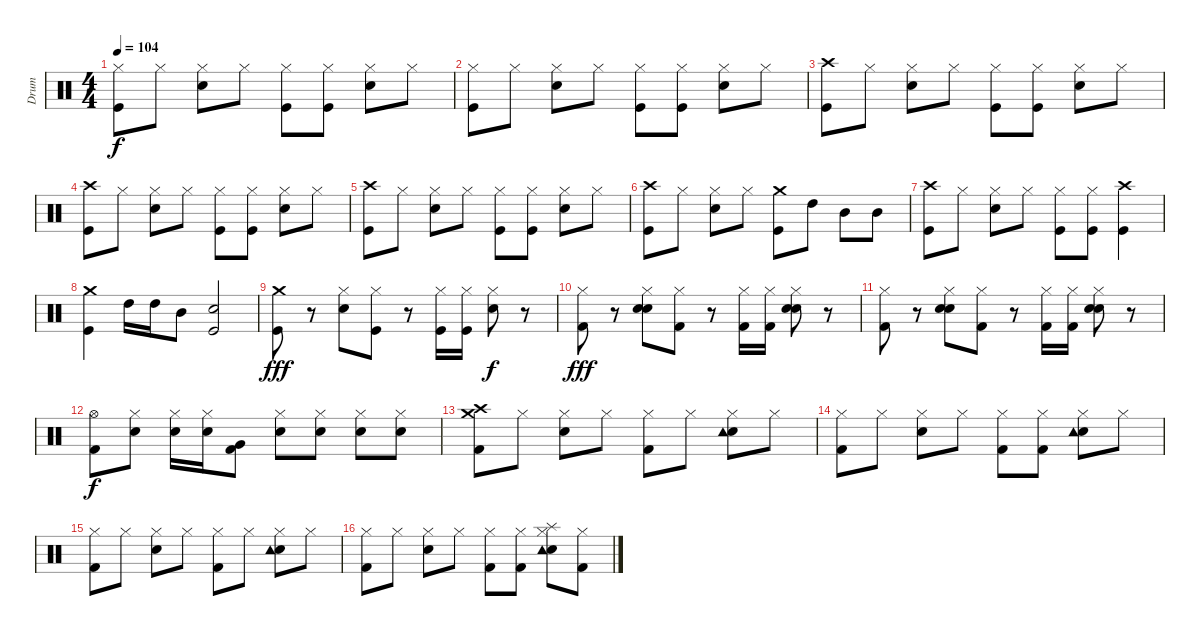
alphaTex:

\track ("Drum" "Drum") {instrument percussion}
\staff {score}
\articulation defaults
\ts (4 4)
\tempo 104
\clef neutral
\ks c
("Hi-Hat (closed)" "Kick (hit)").8{dy f} "Hi-Hat (closed)".8 ("Electric Snare (hit)" "Hi-Hat (closed)").8 "Hi-Hat (closed)".8 ("Hi-Hat (closed)" "Kick (hit)").8 ("Hi-Hat (closed)" "Kick (hit)").8 ("Electric Snare (hit)" "Hi-Hat (closed)").8 "Hi-Hat (closed)".8 |
("Hi-Hat (closed)" "Kick (hit)").8 "Hi-Hat (closed)".8 ("Electric Snare (hit)" "Hi-Hat (closed)").8 "Hi-Hat (closed)".8 ("Hi-Hat (closed)" "Kick (hit)").8 ("Hi-Hat (closed)" "Kick (hit)").8 ("Electric Snare (hit)" "Hi-Hat (closed)").8 "Hi-Hat (closed)".8 |
("Crash high (hit)" "Kick (hit)").8 "Hi-Hat (closed)".8 ("Electric Snare (hit)" "Hi-Hat (closed)").8 "Hi-Hat (closed)".8 ("Hi-Hat (closed)" "Kick (hit)").8 ("Hi-Hat (closed)" "Kick (hit)").8 ("Electric Snare (hit)" "Hi-Hat (closed)").8 "Hi-Hat (closed)".8 |
("Crash high (hit)" "Kick (hit)").8 "Hi-Hat (closed)".8 ("Electric Snare (hit)" "Hi-Hat (closed)").8 "Hi-Hat (closed)".8 ("Hi-Hat (closed)" "Kick (hit)").8 ("Hi-Hat (closed)" "Kick (hit)").8 ("Electric Snare (hit)" "Hi-Hat (closed)").8 "Hi-Hat (closed)".8 |
("Crash high (hit)" "Kick (hit)").8 "Hi-Hat (closed)".8 ("Electric Snare (hit)" "Hi-Hat (closed)").8 "Hi-Hat (closed)".8 ("Hi-Hat (closed)" "Kick (hit)").8 ("Hi-Hat (closed)" "Kick (hit)").8 ("Electric Snare (hit)" "Hi-Hat (closed)").8 "Hi-Hat (closed)".8 |
("Crash high (hit)" "Kick (hit)").8 "Hi-Hat (closed)".8 ("Electric Snare (hit)" "Hi-Hat (closed)").8 "Hi-Hat (closed)".8 ("Crash medium (hit)" "Kick (hit)").8 "High Tom (hit)".8 "Mid Tom (hit)".8 "Mid Tom (hit)".8 |
("Crash high (hit)" "Kick (hit)").8 "Hi-Hat (closed)".8 ("Electric Snare (hit)" "Hi-Hat (closed)").8 "Hi-Hat (closed)".8 ("Hi-Hat (closed)" "Kick (hit)").8 ("Hi-Hat (closed)" "Kick (hit)").8 ("Crash high (hit)" "Kick (hit)").4 |
("Crash medium (hit)" "Kick (hit)").4 "High Tom (hit)".16 "High Tom (hit)".16 "Mid Tom (hit)".8 ("Electric Snare (hit)" "Kick (hit)").2 |
("Crash medium (hit)" "Kick (hit)").8{dy fff} r.8 ("Electric Snare (hit)" "Hi-Hat (closed)").8 ("Hi-Hat (closed)" "Kick (hit)").8 r.8 ("Hi-Hat (closed)" "Kick (hit)").16 ("Hi-Hat (closed)" "Kick (hit)").16 ("Electric Snare (hit)" "Hi-Hat (closed)").8{dy f} r.8 |
("Hi-Hat (closed)" "Kick (hit) 2").8{dy fff} r.8 ("Snare (hit) 2" "Electric Snare (hit)" "Hi-Hat (closed)").8 ("Hi-Hat (closed)" "Kick (hit) 2").8 r.8 ("Hi-Hat (closed)" "Kick (hit) 2").16 ("Hi-Hat (closed)" "Kick (hit) 2").16 ("Snare (hit) 2" "Electric Snare (hit)" "Hi-Hat (closed)").8 r.8 |
("Hi-Hat (closed)" "Kick (hit) 2").8 r.8 ("Snare (hit) 2" "Electric Snare (hit)" "Hi-Hat (closed)").8 ("Hi-Hat (closed)" "Kick (hit) 2").8 r.8 ("Hi-Hat (closed)" "Kick (hit) 2").16 ("Hi-Hat (closed)" "Kick (hit) 2").16 ("Snare (hit) 2" "Electric Snare (hit)" "Hi-Hat (closed)").8 r.8 |
("Hi-Hat (open)" "Kick (hit) 2").8{dy f} ("Snare (hit) 2" "Hi-Hat (closed)").8 ("Snare (hit) 2" "Hi-Hat (closed)").16 ("Snare (hit) 2" "Hi-Hat (closed)").16 ("Very Low Tom (hit)" "Kick (hit) 2").8 ("Snare (hit) 2" "Hi-Hat (closed)").8 ("Snare (hit) 2" "Hi-Hat (closed)").8 ("Snare (hit) 2" "Hi-Hat (closed)").8 ("Snare (hit) 2" "Hi-Hat (closed)").8 |
("Crash medium (hit)" "Crash high (hit)" "Kick (hit) 2").8 "Hi-Hat (closed)".8 ("Snare (hit) 2" "Hi-Hat (closed)").8 "Hi-Hat (closed)".8 ("Hi-Hat (closed)" "Kick (hit) 2").8 "Hi-Hat (closed)".8 ("Snare (hit) 2" "Hi-Hat (closed)" "Tambourine (hit)").8 "Hi-Hat (closed)".8 |
("Hi-Hat (closed)" "Kick (hit) 2").8 "Hi-Hat (closed)".8 ("Snare (hit) 2" "Hi-Hat (closed)").8 "Hi-Hat (closed)".8 ("Hi-Hat (closed)" "Kick (hit) 2").8 ("Hi-Hat (closed)" "Kick (hit) 2").8 ("Snare (hit) 2" "Hi-Hat (closed)" "Tambourine (hit)").8 "Hi-Hat (closed)".8 |
("Hi-Hat (closed)" "Kick (hit) 2").8 "Hi-Hat (closed)".8 ("Snare (hit) 2" "Hi-Hat (closed)").8 "Hi-Hat (closed)".8 ("Hi-Hat (closed)" "Kick (hit) 2").8 "Hi-Hat (closed)".8 ("Snare (hit) 2" "Hi-Hat (closed)" "Tambourine (hit)").8 "Hi-Hat (closed)".8 |
("Hi-Hat (closed)" "Kick (hit) 2").8 "Hi-Hat (closed)".8 ("Snare (hit) 2" "Hi-Hat (closed)").8 "Hi-Hat (closed)".8 ("Hi-Hat (closed)" "Kick (hit) 2").8 ("Hi-Hat (closed)" "Kick (hit) 2").8 ("Snare (hit) 2" "Hi-Hat (closed)" "Tambourine (hit)" "Splash (hit)").8 ("Hi-Hat (closed)" "Kick (hit) 2").8
